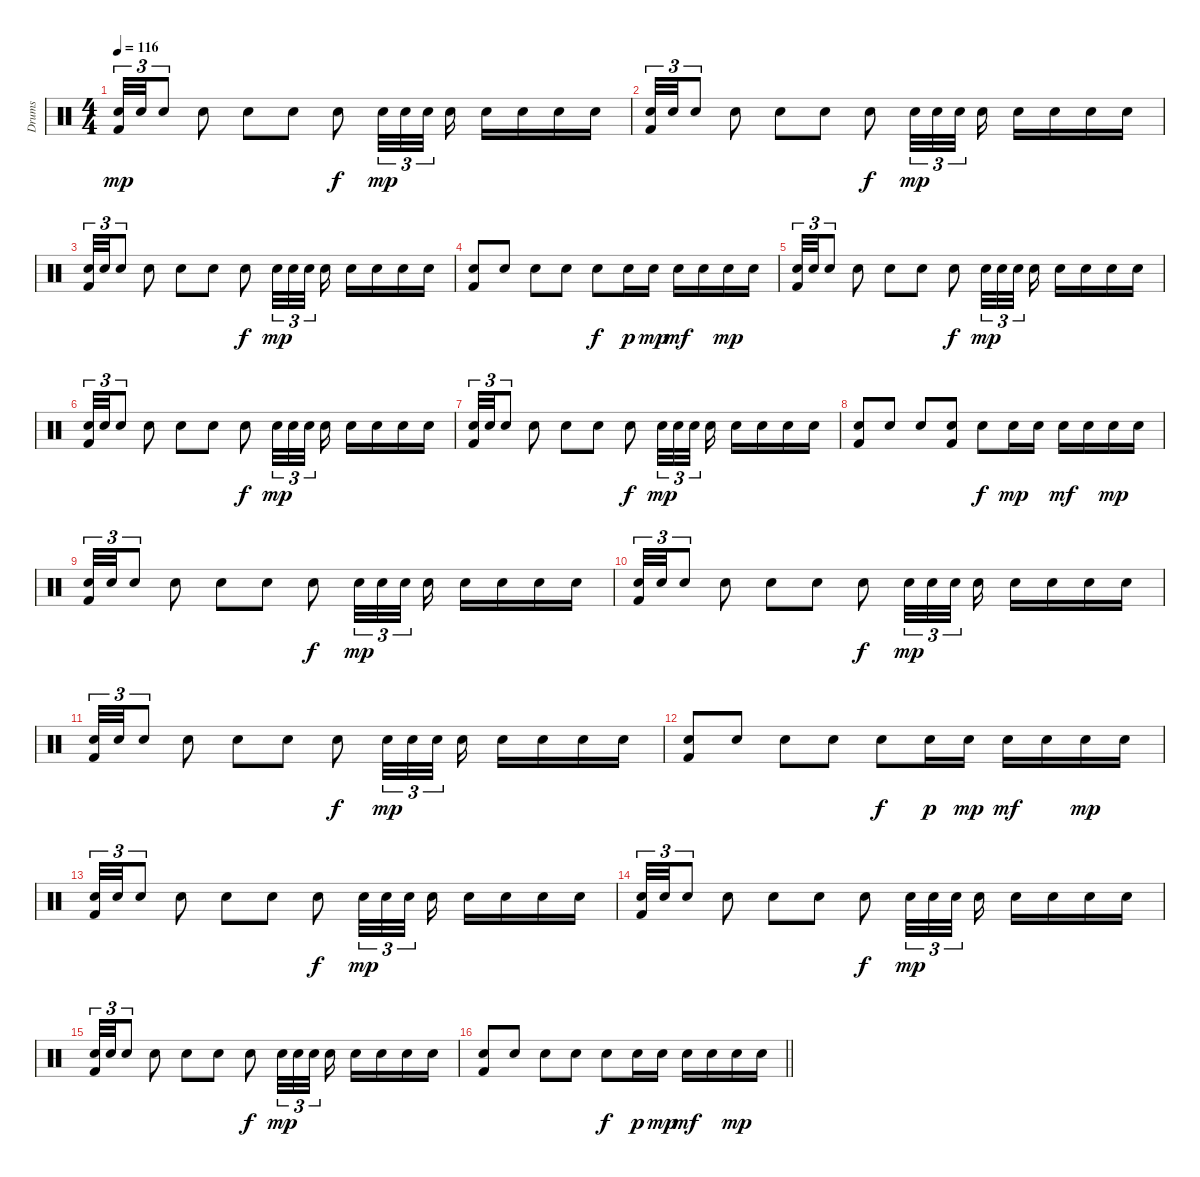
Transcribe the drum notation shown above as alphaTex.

\track ("Drums" "Drums") {instrument percussion}
\staff {score}
\articulation defaults
\ts (4 4)
\tempo 116
\clef neutral
\ks c
("Kick (hit) 2" "Snare (hit) 2").32{tu (3 2) dy mp} "Snare (hit) 2".32{tu (3 2)} "Snare (hit) 2".8{tu (3 2)} "Snare (hit) 2".8 "Snare (hit) 2".8 "Snare (hit) 2".8 "Snare (hit) 2".8{dy f} "Snare (hit) 2".32{tu (3 2) dy mp} "Snare (hit) 2".32{tu (3 2)} "Snare (hit) 2".32{tu (3 2)} "Snare (hit) 2".16 "Snare (hit) 2".16 "Snare (hit) 2".16 "Snare (hit) 2".16 "Snare (hit) 2".16 |
("Kick (hit) 2" "Snare (hit) 2").32{tu (3 2)} "Snare (hit) 2".32{tu (3 2)} "Snare (hit) 2".8{tu (3 2)} "Snare (hit) 2".8 "Snare (hit) 2".8 "Snare (hit) 2".8 "Snare (hit) 2".8{dy f} "Snare (hit) 2".32{tu (3 2) dy mp} "Snare (hit) 2".32{tu (3 2)} "Snare (hit) 2".32{tu (3 2)} "Snare (hit) 2".16 "Snare (hit) 2".16 "Snare (hit) 2".16 "Snare (hit) 2".16 "Snare (hit) 2".16 |
("Kick (hit) 2" "Snare (hit) 2").32{tu (3 2)} "Snare (hit) 2".32{tu (3 2)} "Snare (hit) 2".8{tu (3 2)} "Snare (hit) 2".8 "Snare (hit) 2".8 "Snare (hit) 2".8 "Snare (hit) 2".8{dy f} "Snare (hit) 2".32{tu (3 2) dy mp} "Snare (hit) 2".32{tu (3 2)} "Snare (hit) 2".32{tu (3 2)} "Snare (hit) 2".16 "Snare (hit) 2".16 "Snare (hit) 2".16 "Snare (hit) 2".16 "Snare (hit) 2".16 |
("Kick (hit) 2" "Snare (hit) 2").8 "Snare (hit) 2".8 "Snare (hit) 2".8 "Snare (hit) 2".8 "Snare (hit) 2".8{dy f} "Snare (hit) 2".16{dy p} "Snare (hit) 2".16{dy mp} "Snare (hit) 2".16{dy mf} "Snare (hit) 2".16 "Snare (hit) 2".16{dy mp} "Snare (hit) 2".16 |
("Kick (hit) 2" "Snare (hit) 2").32{tu (3 2)} "Snare (hit) 2".32{tu (3 2)} "Snare (hit) 2".8{tu (3 2)} "Snare (hit) 2".8 "Snare (hit) 2".8 "Snare (hit) 2".8 "Snare (hit) 2".8{dy f} "Snare (hit) 2".32{tu (3 2) dy mp} "Snare (hit) 2".32{tu (3 2)} "Snare (hit) 2".32{tu (3 2)} "Snare (hit) 2".16 "Snare (hit) 2".16 "Snare (hit) 2".16 "Snare (hit) 2".16 "Snare (hit) 2".16 |
("Kick (hit) 2" "Snare (hit) 2").32{tu (3 2)} "Snare (hit) 2".32{tu (3 2)} "Snare (hit) 2".8{tu (3 2)} "Snare (hit) 2".8 "Snare (hit) 2".8 "Snare (hit) 2".8 "Snare (hit) 2".8{dy f} "Snare (hit) 2".32{tu (3 2) dy mp} "Snare (hit) 2".32{tu (3 2)} "Snare (hit) 2".32{tu (3 2)} "Snare (hit) 2".16 "Snare (hit) 2".16 "Snare (hit) 2".16 "Snare (hit) 2".16 "Snare (hit) 2".16 |
("Kick (hit) 2" "Snare (hit) 2").32{tu (3 2)} "Snare (hit) 2".32{tu (3 2)} "Snare (hit) 2".8{tu (3 2)} "Snare (hit) 2".8 "Snare (hit) 2".8 "Snare (hit) 2".8 "Snare (hit) 2".8{dy f} "Snare (hit) 2".32{tu (3 2) dy mp} "Snare (hit) 2".32{tu (3 2)} "Snare (hit) 2".32{tu (3 2)} "Snare (hit) 2".16 "Snare (hit) 2".16 "Snare (hit) 2".16 "Snare (hit) 2".16 "Snare (hit) 2".16 |
("Kick (hit) 2" "Snare (hit) 2").8 "Snare (hit) 2".8 "Snare (hit) 2".8 ("Kick (hit) 2" "Snare (hit) 2").8 "Snare (hit) 2".8{dy f} "Snare (hit) 2".16{dy mp} "Snare (hit) 2".16 "Snare (hit) 2".16{dy mf} "Snare (hit) 2".16 "Snare (hit) 2".16{dy mp} "Snare (hit) 2".16 |
("Kick (hit) 2" "Snare (hit) 2").32{tu (3 2)} "Snare (hit) 2".32{tu (3 2)} "Snare (hit) 2".8{tu (3 2)} "Snare (hit) 2".8 "Snare (hit) 2".8 "Snare (hit) 2".8 "Snare (hit) 2".8{dy f} "Snare (hit) 2".32{tu (3 2) dy mp} "Snare (hit) 2".32{tu (3 2)} "Snare (hit) 2".32{tu (3 2)} "Snare (hit) 2".16 "Snare (hit) 2".16 "Snare (hit) 2".16 "Snare (hit) 2".16 "Snare (hit) 2".16 |
("Kick (hit) 2" "Snare (hit) 2").32{tu (3 2)} "Snare (hit) 2".32{tu (3 2)} "Snare (hit) 2".8{tu (3 2)} "Snare (hit) 2".8 "Snare (hit) 2".8 "Snare (hit) 2".8 "Snare (hit) 2".8{dy f} "Snare (hit) 2".32{tu (3 2) dy mp} "Snare (hit) 2".32{tu (3 2)} "Snare (hit) 2".32{tu (3 2)} "Snare (hit) 2".16 "Snare (hit) 2".16 "Snare (hit) 2".16 "Snare (hit) 2".16 "Snare (hit) 2".16 |
("Kick (hit) 2" "Snare (hit) 2").32{tu (3 2)} "Snare (hit) 2".32{tu (3 2)} "Snare (hit) 2".8{tu (3 2)} "Snare (hit) 2".8 "Snare (hit) 2".8 "Snare (hit) 2".8 "Snare (hit) 2".8{dy f} "Snare (hit) 2".32{tu (3 2) dy mp} "Snare (hit) 2".32{tu (3 2)} "Snare (hit) 2".32{tu (3 2)} "Snare (hit) 2".16 "Snare (hit) 2".16 "Snare (hit) 2".16 "Snare (hit) 2".16 "Snare (hit) 2".16 |
("Kick (hit) 2" "Snare (hit) 2").8 "Snare (hit) 2".8 "Snare (hit) 2".8 "Snare (hit) 2".8 "Snare (hit) 2".8{dy f} "Snare (hit) 2".16{dy p} "Snare (hit) 2".16{dy mp} "Snare (hit) 2".16{dy mf} "Snare (hit) 2".16 "Snare (hit) 2".16{dy mp} "Snare (hit) 2".16 |
("Kick (hit) 2" "Snare (hit) 2").32{tu (3 2)} "Snare (hit) 2".32{tu (3 2)} "Snare (hit) 2".8{tu (3 2)} "Snare (hit) 2".8 "Snare (hit) 2".8 "Snare (hit) 2".8 "Snare (hit) 2".8{dy f} "Snare (hit) 2".32{tu (3 2) dy mp} "Snare (hit) 2".32{tu (3 2)} "Snare (hit) 2".32{tu (3 2)} "Snare (hit) 2".16 "Snare (hit) 2".16 "Snare (hit) 2".16 "Snare (hit) 2".16 "Snare (hit) 2".16 |
("Kick (hit) 2" "Snare (hit) 2").32{tu (3 2)} "Snare (hit) 2".32{tu (3 2)} "Snare (hit) 2".8{tu (3 2)} "Snare (hit) 2".8 "Snare (hit) 2".8 "Snare (hit) 2".8 "Snare (hit) 2".8{dy f} "Snare (hit) 2".32{tu (3 2) dy mp} "Snare (hit) 2".32{tu (3 2)} "Snare (hit) 2".32{tu (3 2)} "Snare (hit) 2".16 "Snare (hit) 2".16 "Snare (hit) 2".16 "Snare (hit) 2".16 "Snare (hit) 2".16 |
("Kick (hit) 2" "Snare (hit) 2").32{tu (3 2)} "Snare (hit) 2".32{tu (3 2)} "Snare (hit) 2".8{tu (3 2)} "Snare (hit) 2".8 "Snare (hit) 2".8 "Snare (hit) 2".8 "Snare (hit) 2".8{dy f} "Snare (hit) 2".32{tu (3 2) dy mp} "Snare (hit) 2".32{tu (3 2)} "Snare (hit) 2".32{tu (3 2)} "Snare (hit) 2".16 "Snare (hit) 2".16 "Snare (hit) 2".16 "Snare (hit) 2".16 "Snare (hit) 2".16 |
\barLineRight lightlight
("Kick (hit) 2" "Snare (hit) 2").8 "Snare (hit) 2".8 "Snare (hit) 2".8 "Snare (hit) 2".8 "Snare (hit) 2".8{dy f} "Snare (hit) 2".16{dy p} "Snare (hit) 2".16{dy mp} "Snare (hit) 2".16{dy mf} "Snare (hit) 2".16 "Snare (hit) 2".16{dy mp} "Snare (hit) 2".16
